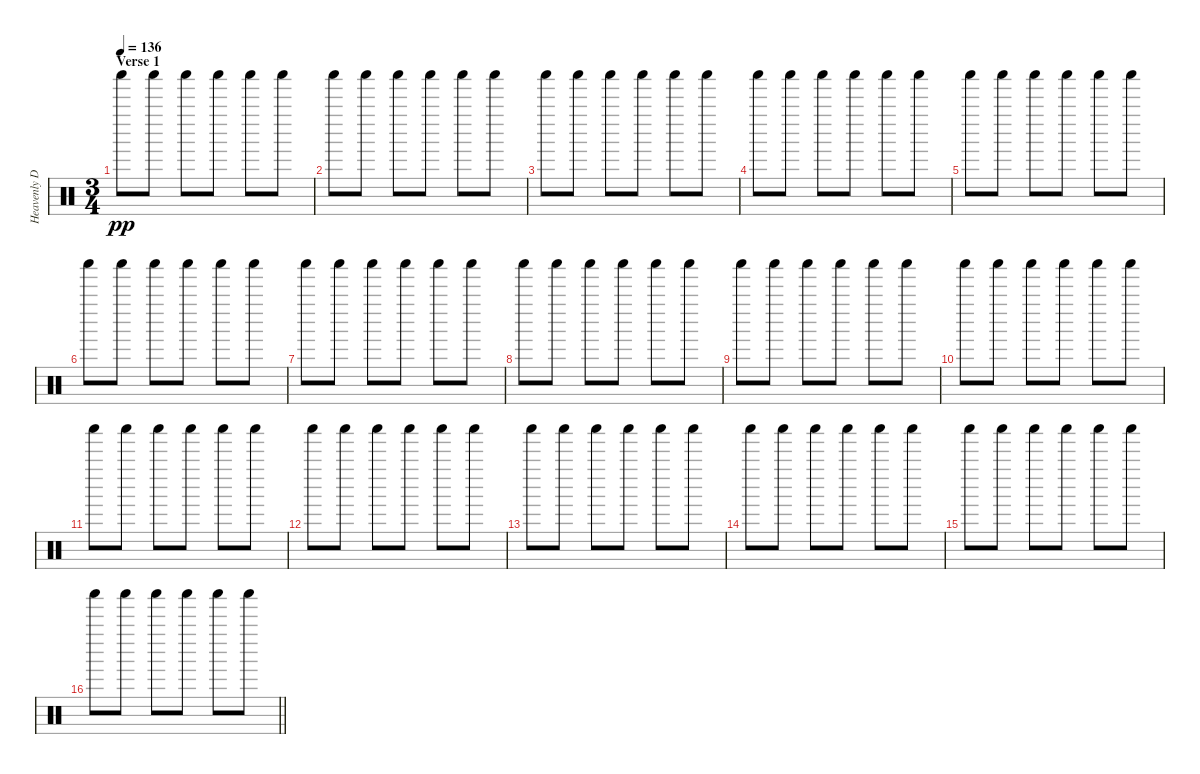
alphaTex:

\track ("Heavenly Drums" "Heavenly D") {instrument percussion}
\staff {score}
\articulation defaults
\ts (3 4)
\section ("" "Verse 1")
\tempo 136
\clef neutral
\ks c "Shaker (hit)".8{dy pp} "Shaker (hit)".8 "Shaker (hit)".8 "Shaker (hit)".8 "Shaker (hit)".8 "Shaker (hit)".8
|
"Shaker (hit)".8 "Shaker (hit)".8 "Shaker (hit)".8 "Shaker (hit)".8 "Shaker (hit)".8 "Shaker (hit)".8 |
"Shaker (hit)".8 "Shaker (hit)".8 "Shaker (hit)".8 "Shaker (hit)".8 "Shaker (hit)".8 "Shaker (hit)".8 |
"Shaker (hit)".8 "Shaker (hit)".8 "Shaker (hit)".8 "Shaker (hit)".8 "Shaker (hit)".8 "Shaker (hit)".8 |
"Shaker (hit)".8 "Shaker (hit)".8 "Shaker (hit)".8 "Shaker (hit)".8 "Shaker (hit)".8 "Shaker (hit)".8 |
"Shaker (hit)".8 "Shaker (hit)".8 "Shaker (hit)".8 "Shaker (hit)".8 "Shaker (hit)".8 "Shaker (hit)".8 |
"Shaker (hit)".8 "Shaker (hit)".8 "Shaker (hit)".8 "Shaker (hit)".8 "Shaker (hit)".8 "Shaker (hit)".8 |
"Shaker (hit)".8 "Shaker (hit)".8 "Shaker (hit)".8 "Shaker (hit)".8 "Shaker (hit)".8 "Shaker (hit)".8 |
"Shaker (hit)".8 "Shaker (hit)".8 "Shaker (hit)".8 "Shaker (hit)".8 "Shaker (hit)".8 "Shaker (hit)".8 |
"Shaker (hit)".8 "Shaker (hit)".8 "Shaker (hit)".8 "Shaker (hit)".8 "Shaker (hit)".8 "Shaker (hit)".8 |
"Shaker (hit)".8 "Shaker (hit)".8 "Shaker (hit)".8 "Shaker (hit)".8 "Shaker (hit)".8 "Shaker (hit)".8 |
"Shaker (hit)".8 "Shaker (hit)".8 "Shaker (hit)".8 "Shaker (hit)".8 "Shaker (hit)".8 "Shaker (hit)".8 |
"Shaker (hit)".8 "Shaker (hit)".8 "Shaker (hit)".8 "Shaker (hit)".8 "Shaker (hit)".8 "Shaker (hit)".8 |
"Shaker (hit)".8 "Shaker (hit)".8 "Shaker (hit)".8 "Shaker (hit)".8 "Shaker (hit)".8 "Shaker (hit)".8 |
"Shaker (hit)".8 "Shaker (hit)".8 "Shaker (hit)".8 "Shaker (hit)".8 "Shaker (hit)".8 "Shaker (hit)".8 |
\barLineRight lightlight "Shaker (hit)".8 "Shaker (hit)".8 "Shaker (hit)".8 "Shaker (hit)".8 "Shaker (hit)".8 "Shaker (hit)".8
